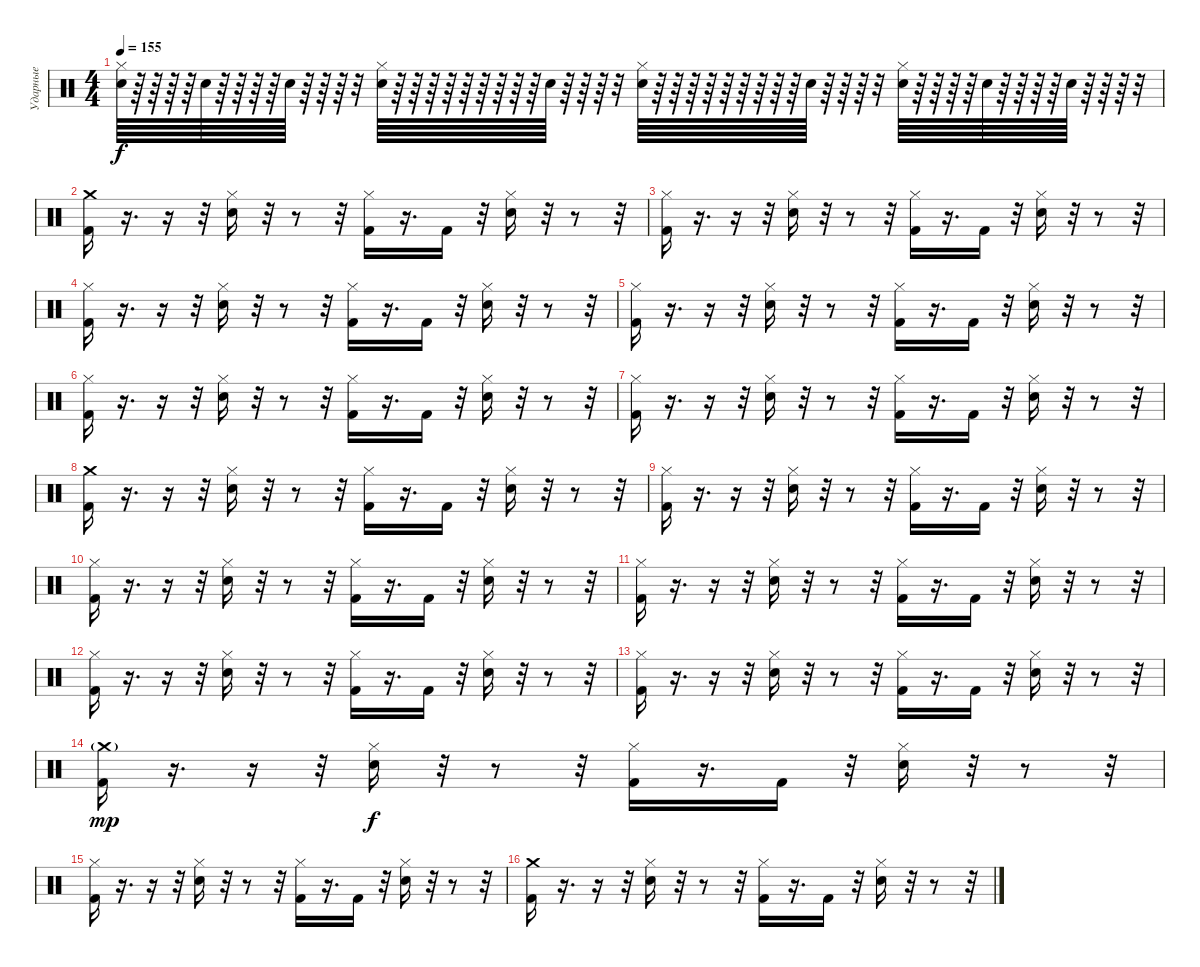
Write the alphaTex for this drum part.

\track ("Ударные" "Ударные") {instrument percussion}
\staff {score}
\articulation defaults
\ts (4 4)
\tempo 155
\clef neutral
\ks c
("Electric Snare (hit)" "Hi-Hat (closed)").64{dy f} r.64 r.64 r.64 r.64 "Electric Snare (hit)".64 r.64 r.64 r.64 r.64 "Electric Snare (hit)".64 r.64 r.64 r.64 r.32 ("Electric Snare (hit)" "Hi-Hat (closed)").64 r.64 r.64 r.64 r.64 r.64 r.64 r.64 r.64 r.64 "Electric Snare (hit)".64 r.64 r.64 r.64 r.32 ("Electric Snare (hit)" "Hi-Hat (closed)").64 r.64 r.64 r.64 r.64 r.64 r.64 r.64 r.64 r.64 "Snare (hit) 2".64 r.64 r.64 r.64 r.32 ("Electric Snare (hit)" "Hi-Hat (closed)").64 r.64 r.64 r.64 r.64 "Electric Snare (hit)".64 r.64 r.64 r.64 r.64 "Electric Snare (hit)".64 r.64 r.64 r.64 r.32 |
("Crash medium (hit)" "Kick (hit) 2").16 r.16{d} r.16 r.32 ("Snare (hit) 2" "Hi-Hat (closed)").16 r.32 r.8 r.32 ("Hi-Hat (closed)" "Kick (hit) 2").16 r.16{d} "Kick (hit) 2".16 r.32 ("Snare (hit) 2" "Hi-Hat (closed)").16 r.32 r.8 r.32 |
("Hi-Hat (closed)" "Kick (hit) 2").16 r.16{d} r.16 r.32 ("Snare (hit) 2" "Hi-Hat (closed)").16 r.32 r.8 r.32 ("Hi-Hat (closed)" "Kick (hit) 2").16 r.16{d} "Kick (hit) 2".16 r.32 ("Snare (hit) 2" "Hi-Hat (closed)").16 r.32 r.8 r.32 |
("Hi-Hat (closed)" "Kick (hit) 2").16 r.16{d} r.16 r.32 ("Snare (hit) 2" "Hi-Hat (closed)").16 r.32 r.8 r.32 ("Hi-Hat (closed)" "Kick (hit) 2").16 r.16{d} "Kick (hit) 2".16 r.32 ("Snare (hit) 2" "Hi-Hat (closed)").16 r.32 r.8 r.32 |
("Hi-Hat (closed)" "Kick (hit) 2").16 r.16{d} r.16 r.32 ("Snare (hit) 2" "Hi-Hat (closed)").16 r.32 r.8 r.32 ("Hi-Hat (closed)" "Kick (hit) 2").16 r.16{d} "Kick (hit) 2".16 r.32 ("Snare (hit) 2" "Hi-Hat (closed)").16 r.32 r.8 r.32 |
("Hi-Hat (closed)" "Kick (hit) 2").16 r.16{d} r.16 r.32 ("Snare (hit) 2" "Hi-Hat (closed)").16 r.32 r.8 r.32 ("Hi-Hat (closed)" "Kick (hit) 2").16 r.16{d} "Kick (hit) 2".16 r.32 ("Snare (hit) 2" "Hi-Hat (closed)").16 r.32 r.8 r.32 |
("Hi-Hat (closed)" "Kick (hit) 2").16 r.16{d} r.16 r.32 ("Snare (hit) 2" "Hi-Hat (closed)").16 r.32 r.8 r.32 ("Hi-Hat (closed)" "Kick (hit) 2").16 r.16{d} "Kick (hit) 2".16 r.32 ("Snare (hit) 2" "Hi-Hat (closed)").16 r.32 r.8 r.32 |
("Crash medium (hit)" "Kick (hit) 2").16 r.16{d} r.16 r.32 ("Snare (hit) 2" "Hi-Hat (closed)").16 r.32 r.8 r.32 ("Hi-Hat (closed)" "Kick (hit) 2").16 r.16{d} "Kick (hit) 2".16 r.32 ("Snare (hit) 2" "Hi-Hat (closed)").16 r.32 r.8 r.32 |
("Hi-Hat (closed)" "Kick (hit) 2").16 r.16{d} r.16 r.32 ("Snare (hit) 2" "Hi-Hat (closed)").16 r.32 r.8 r.32 ("Hi-Hat (closed)" "Kick (hit) 2").16 r.16{d} "Kick (hit) 2".16 r.32 ("Snare (hit) 2" "Hi-Hat (closed)").16 r.32 r.8 r.32 |
("Hi-Hat (closed)" "Kick (hit) 2").16 r.16{d} r.16 r.32 ("Snare (hit) 2" "Hi-Hat (closed)").16 r.32 r.8 r.32 ("Hi-Hat (closed)" "Kick (hit) 2").16 r.16{d} "Kick (hit) 2".16 r.32 ("Snare (hit) 2" "Hi-Hat (closed)").16 r.32 r.8 r.32 |
("Hi-Hat (closed)" "Kick (hit) 2").16 r.16{d} r.16 r.32 ("Snare (hit) 2" "Hi-Hat (closed)").16 r.32 r.8 r.32 ("Hi-Hat (closed)" "Kick (hit) 2").16 r.16{d} "Kick (hit) 2".16 r.32 ("Snare (hit) 2" "Hi-Hat (closed)").16 r.32 r.8 r.32 |
("Hi-Hat (closed)" "Kick (hit) 2").16 r.16{d} r.16 r.32 ("Snare (hit) 2" "Hi-Hat (closed)").16 r.32 r.8 r.32 ("Hi-Hat (closed)" "Kick (hit) 2").16 r.16{d} "Kick (hit) 2".16 r.32 ("Snare (hit) 2" "Hi-Hat (closed)").16 r.32 r.8 r.32 |
("Hi-Hat (closed)" "Kick (hit) 2").16 r.16{d} r.16 r.32 ("Snare (hit) 2" "Hi-Hat (closed)").16 r.32 r.8 r.32 ("Hi-Hat (closed)" "Kick (hit) 2").16 r.16{d} "Kick (hit) 2".16 r.32 ("Snare (hit) 2" "Hi-Hat (closed)").16 r.32 r.8 r.32 |
("Crash medium (hit)"{g} "Kick (hit) 2").16{dy mp} r.16{d} r.16 r.32 ("Snare (hit) 2" "Hi-Hat (closed)").16{dy f} r.32 r.8 r.32 ("Hi-Hat (closed)" "Kick (hit) 2").16 r.16{d} "Kick (hit) 2".16 r.32 ("Snare (hit) 2" "Hi-Hat (closed)").16 r.32 r.8 r.32 |
("Hi-Hat (closed)" "Kick (hit) 2").16 r.16{d} r.16 r.32 ("Snare (hit) 2" "Hi-Hat (closed)").16 r.32 r.8 r.32 ("Hi-Hat (closed)" "Kick (hit) 2").16 r.16{d} "Kick (hit) 2".16 r.32 ("Snare (hit) 2" "Hi-Hat (closed)").16 r.32 r.8 r.32 |
("Crash medium (hit)" "Kick (hit) 2").16 r.16{d} r.16 r.32 ("Snare (hit) 2" "Hi-Hat (closed)").16 r.32 r.8 r.32 ("Hi-Hat (closed)" "Kick (hit) 2").16 r.16{d} "Kick (hit) 2".16 r.32 ("Snare (hit) 2" "Hi-Hat (closed)").16 r.32 r.8 r.32
